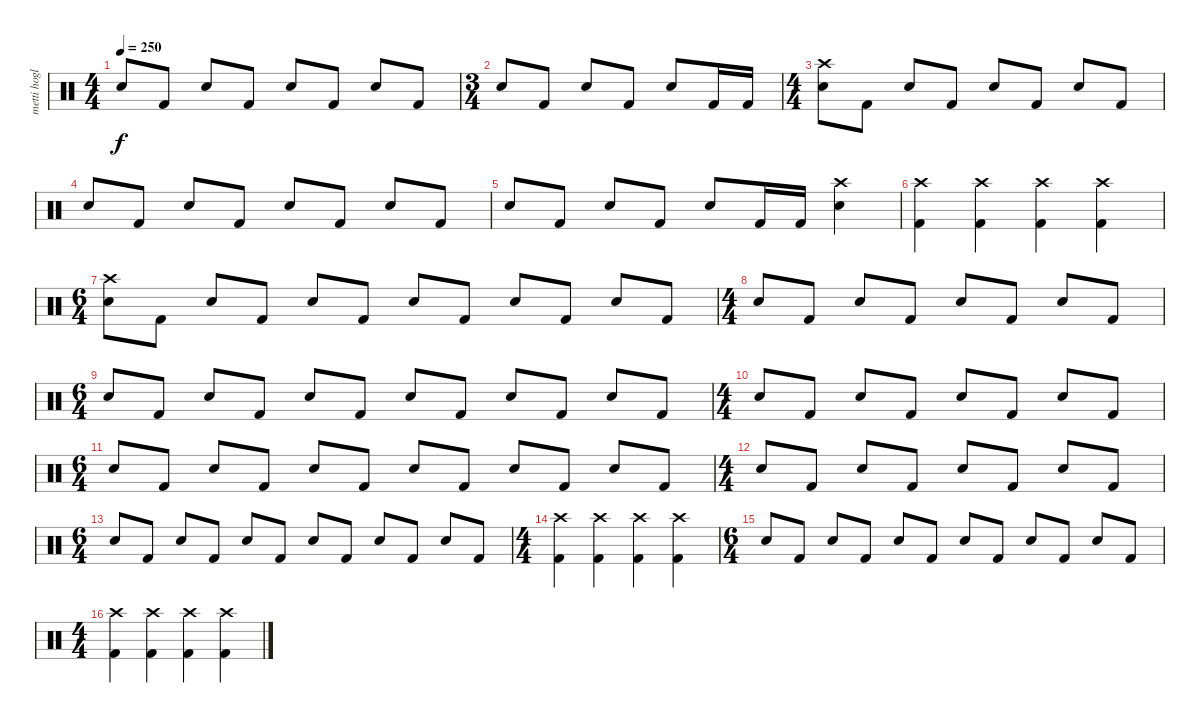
\track ("metti hoglan" "metti hogl") {instrument percussion}
\staff {score}
\articulation defaults
\ts (4 4)
\tempo 250
\clef neutral
\ks c "Snare (hit) 2".8{dy f} "Kick (hit) 2".8 "Snare (hit) 2".8 "Kick (hit) 2".8 "Snare (hit) 2".8 "Kick (hit) 2".8 "Snare (hit) 2".8 "Kick (hit) 2".8
|
\ts (3 4)
"Snare (hit) 2".8 "Kick (hit) 2".8 "Snare (hit) 2".8 "Kick (hit) 2".8 "Snare (hit) 2".8 "Kick (hit) 2".16 "Kick (hit) 2".16 |
\ts (4 4)
("Crash high (hit)" "Snare (hit) 2").8 "Kick (hit) 2".8 "Snare (hit) 2".8 "Kick (hit) 2".8 "Snare (hit) 2".8 "Kick (hit) 2".8 "Snare (hit) 2".8 "Kick (hit) 2".8 |
"Snare (hit) 2".8 "Kick (hit) 2".8 "Snare (hit) 2".8 "Kick (hit) 2".8 "Snare (hit) 2".8 "Kick (hit) 2".8 "Snare (hit) 2".8 "Kick (hit) 2".8 |
"Snare (hit) 2".8 "Kick (hit) 2".8 "Snare (hit) 2".8 "Kick (hit) 2".8 "Snare (hit) 2".8 "Kick (hit) 2".16 "Kick (hit) 2".16 ("Crash high (hit)" "Snare (hit) 2").4 |
("Crash high (hit)" "Kick (hit) 2").4 ("Crash high (hit)" "Kick (hit) 2").4 ("Crash high (hit)" "Kick (hit) 2").4 ("Crash high (hit)" "Kick (hit) 2").4 |
\ts (6 4)
("Crash high (hit)" "Snare (hit) 2").8 "Kick (hit) 2".8 "Snare (hit) 2".8 "Kick (hit) 2".8 "Snare (hit) 2".8 "Kick (hit) 2".8 "Snare (hit) 2".8 "Kick (hit) 2".8 "Snare (hit) 2".8 "Kick (hit) 2".8 "Snare (hit) 2".8 "Kick (hit) 2".8 |
\ts (4 4)
"Snare (hit) 2".8 "Kick (hit) 2".8 "Snare (hit) 2".8 "Kick (hit) 2".8 "Snare (hit) 2".8 "Kick (hit) 2".8 "Snare (hit) 2".8 "Kick (hit) 2".8 |
\ts (6 4)
"Snare (hit) 2".8 "Kick (hit) 2".8 "Snare (hit) 2".8 "Kick (hit) 2".8 "Snare (hit) 2".8 "Kick (hit) 2".8 "Snare (hit) 2".8 "Kick (hit) 2".8 "Snare (hit) 2".8 "Kick (hit) 2".8 "Snare (hit) 2".8 "Kick (hit) 2".8 |
\ts (4 4)
"Snare (hit) 2".8 "Kick (hit) 2".8 "Snare (hit) 2".8 "Kick (hit) 2".8 "Snare (hit) 2".8 "Kick (hit) 2".8 "Snare (hit) 2".8 "Kick (hit) 2".8 |
\ts (6 4)
"Snare (hit) 2".8 "Kick (hit) 2".8 "Snare (hit) 2".8 "Kick (hit) 2".8 "Snare (hit) 2".8 "Kick (hit) 2".8 "Snare (hit) 2".8 "Kick (hit) 2".8 "Snare (hit) 2".8 "Kick (hit) 2".8 "Snare (hit) 2".8 "Kick (hit) 2".8 |
\ts (4 4)
"Snare (hit) 2".8 "Kick (hit) 2".8 "Snare (hit) 2".8 "Kick (hit) 2".8 "Snare (hit) 2".8 "Kick (hit) 2".8 "Snare (hit) 2".8 "Kick (hit) 2".8 |
\ts (6 4)
"Snare (hit) 2".8 "Kick (hit) 2".8 "Snare (hit) 2".8 "Kick (hit) 2".8 "Snare (hit) 2".8 "Kick (hit) 2".8 "Snare (hit) 2".8 "Kick (hit) 2".8 "Snare (hit) 2".8 "Kick (hit) 2".8 "Snare (hit) 2".8 "Kick (hit) 2".8 |
\ts (4 4)
("Crash high (hit)" "Kick (hit) 2").4 ("Crash high (hit)" "Kick (hit) 2").4 ("Crash high (hit)" "Kick (hit) 2").4 ("Crash high (hit)" "Kick (hit) 2").4 |
\ts (6 4)
"Snare (hit) 2".8 "Kick (hit) 2".8 "Snare (hit) 2".8 "Kick (hit) 2".8 "Snare (hit) 2".8 "Kick (hit) 2".8 "Snare (hit) 2".8 "Kick (hit) 2".8 "Snare (hit) 2".8 "Kick (hit) 2".8 "Snare (hit) 2".8 "Kick (hit) 2".8 |
\ts (4 4)
("Crash high (hit)" "Kick (hit) 2").4 ("Crash high (hit)" "Kick (hit) 2").4 ("Crash high (hit)" "Kick (hit) 2").4 ("Crash high (hit)" "Kick (hit) 2").4
